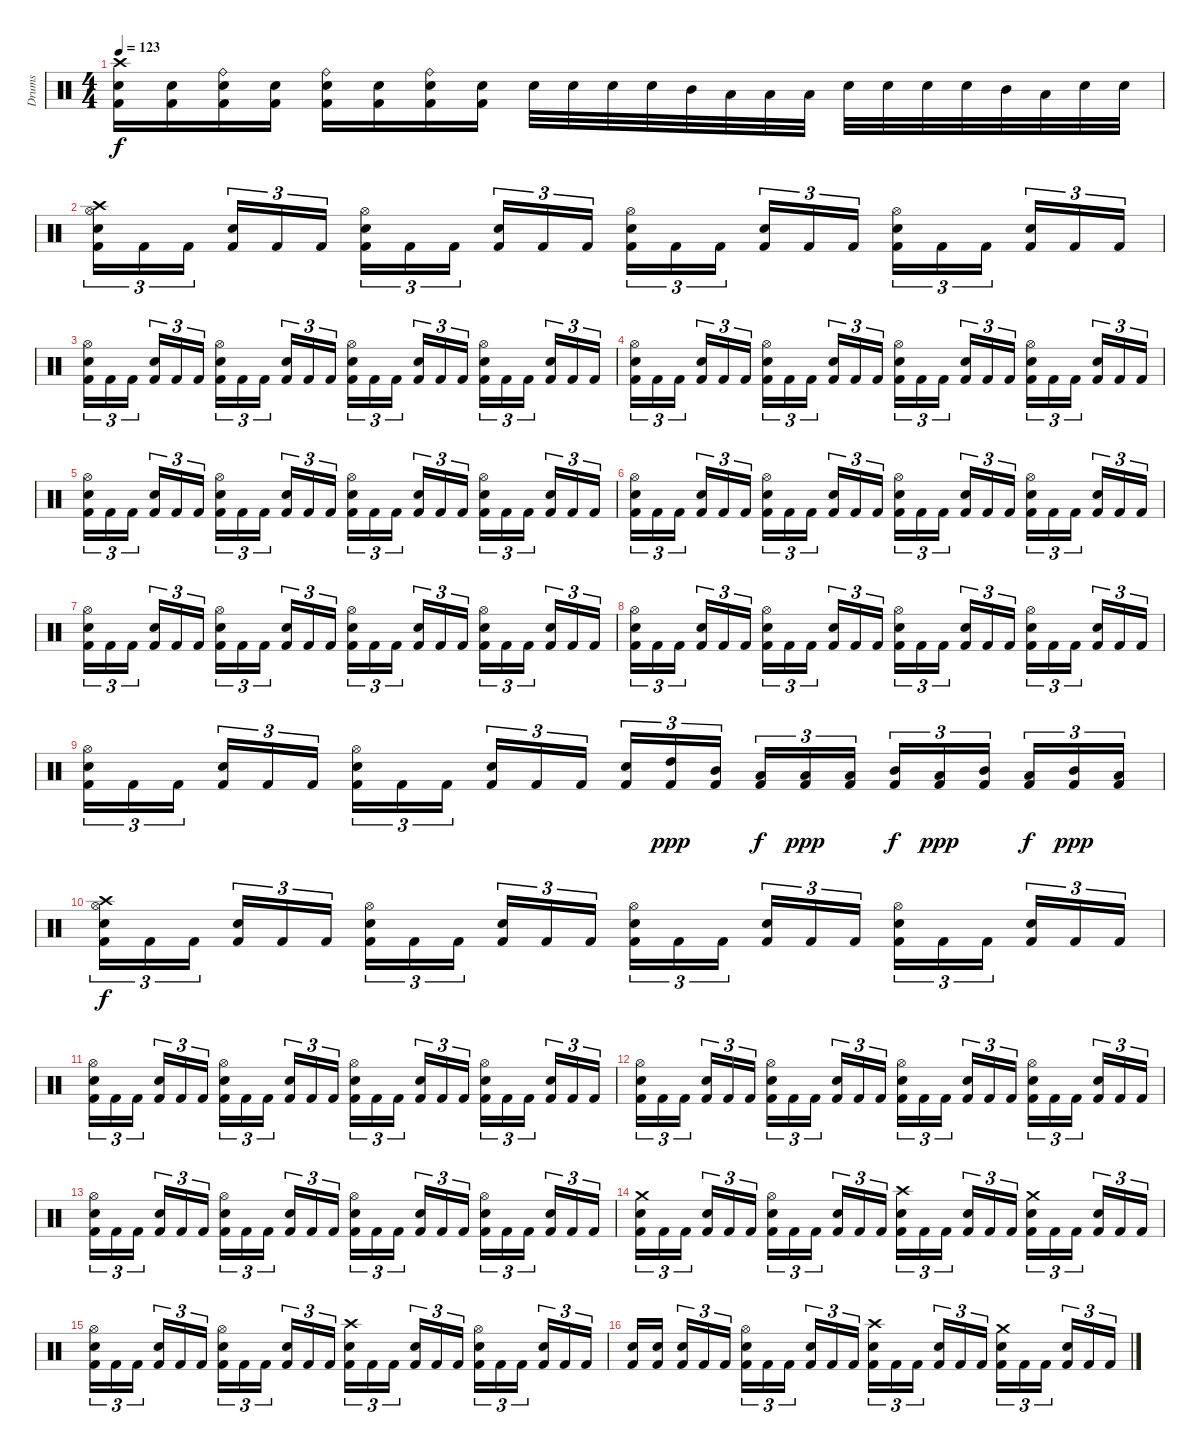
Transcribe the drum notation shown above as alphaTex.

\track ("Drums" "Drums") {instrument percussion}
\staff {score}
\articulation defaults
\ts (4 4)
\tempo 123
\clef neutral
\ks c
("Crash high (hit)" "Snare (hit) 2" "Kick (hit) 2").16{dy f} ("Snare (hit) 2" "Kick (hit) 2").16 ("Ride (bell)" "Snare (hit) 2" "Kick (hit) 2").16 ("Snare (hit) 2" "Kick (hit) 2").16 ("Ride (bell)" "Snare (hit) 2" "Kick (hit) 2").16 ("Snare (hit) 2" "Kick (hit) 2").16 ("Ride (bell)" "Snare (hit) 2" "Kick (hit) 2").16 ("Snare (hit) 2" "Kick (hit) 2").16 "Snare (hit) 2".32 "Snare (hit) 2".32 "Snare (hit) 2".32 "Snare (hit) 2".32 "Mid Tom (hit)".32 "Low Tom (hit)".32 "Low Floor Tom (hit)".32 "Low Tom (hit)".32 "Snare (hit) 2".32 "Snare (hit) 2".32 "Snare (hit) 2".32 "Snare (hit) 2".32 "Mid Tom (hit)".32 "Low Tom (hit)".32 "Snare (hit) 2".32 "Snare (hit) 2".32 |
("Crash high (hit)" "Hi-Hat (open)" "Snare (hit) 2" "Kick (hit) 2").16{tu (3 2)} "Kick (hit) 2".16{tu (3 2)} "Kick (hit) 2".16{tu (3 2) beam splitsecondary} ("Snare (hit) 2" "Kick (hit) 2").16{tu (3 2)} "Kick (hit) 2".16{tu (3 2)} "Kick (hit) 2".16{tu (3 2)} ("Hi-Hat (open)" "Snare (hit) 2" "Kick (hit) 2").16{tu (3 2)} "Kick (hit) 2".16{tu (3 2)} "Kick (hit) 2".16{tu (3 2) beam splitsecondary} ("Snare (hit) 2" "Kick (hit) 2").16{tu (3 2)} "Kick (hit) 2".16{tu (3 2)} "Kick (hit) 2".16{tu (3 2)} ("Hi-Hat (open)" "Snare (hit) 2" "Kick (hit) 2").16{tu (3 2)} "Kick (hit) 2".16{tu (3 2)} "Kick (hit) 2".16{tu (3 2) beam splitsecondary} ("Snare (hit) 2" "Kick (hit) 2").16{tu (3 2)} "Kick (hit) 2".16{tu (3 2)} "Kick (hit) 2".16{tu (3 2)} ("Hi-Hat (open)" "Snare (hit) 2" "Kick (hit) 2").16{tu (3 2)} "Kick (hit) 2".16{tu (3 2)} "Kick (hit) 2".16{tu (3 2) beam splitsecondary} ("Snare (hit) 2" "Kick (hit) 2").16{tu (3 2)} "Kick (hit) 2".16{tu (3 2)} "Kick (hit) 2".16{tu (3 2)} |
("Hi-Hat (open)" "Snare (hit) 2" "Kick (hit) 2").16{tu (3 2)} "Kick (hit) 2".16{tu (3 2)} "Kick (hit) 2".16{tu (3 2) beam splitsecondary} ("Snare (hit) 2" "Kick (hit) 2").16{tu (3 2)} "Kick (hit) 2".16{tu (3 2)} "Kick (hit) 2".16{tu (3 2)} ("Hi-Hat (open)" "Snare (hit) 2" "Kick (hit) 2").16{tu (3 2)} "Kick (hit) 2".16{tu (3 2)} "Kick (hit) 2".16{tu (3 2) beam splitsecondary} ("Snare (hit) 2" "Kick (hit) 2").16{tu (3 2)} "Kick (hit) 2".16{tu (3 2)} "Kick (hit) 2".16{tu (3 2)} ("Hi-Hat (open)" "Snare (hit) 2" "Kick (hit) 2").16{tu (3 2)} "Kick (hit) 2".16{tu (3 2)} "Kick (hit) 2".16{tu (3 2) beam splitsecondary} ("Snare (hit) 2" "Kick (hit) 2").16{tu (3 2)} "Kick (hit) 2".16{tu (3 2)} "Kick (hit) 2".16{tu (3 2)} ("Hi-Hat (open)" "Snare (hit) 2" "Kick (hit) 2").16{tu (3 2)} "Kick (hit) 2".16{tu (3 2)} "Kick (hit) 2".16{tu (3 2) beam splitsecondary} ("Snare (hit) 2" "Kick (hit) 2").16{tu (3 2)} "Kick (hit) 2".16{tu (3 2)} "Kick (hit) 2".16{tu (3 2)} |
("Hi-Hat (open)" "Snare (hit) 2" "Kick (hit) 2").16{tu (3 2)} "Kick (hit) 2".16{tu (3 2)} "Kick (hit) 2".16{tu (3 2) beam splitsecondary} ("Snare (hit) 2" "Kick (hit) 2").16{tu (3 2)} "Kick (hit) 2".16{tu (3 2)} "Kick (hit) 2".16{tu (3 2)} ("Hi-Hat (open)" "Snare (hit) 2" "Kick (hit) 2").16{tu (3 2)} "Kick (hit) 2".16{tu (3 2)} "Kick (hit) 2".16{tu (3 2) beam splitsecondary} ("Snare (hit) 2" "Kick (hit) 2").16{tu (3 2)} "Kick (hit) 2".16{tu (3 2)} "Kick (hit) 2".16{tu (3 2)} ("Hi-Hat (open)" "Snare (hit) 2" "Kick (hit) 2").16{tu (3 2)} "Kick (hit) 2".16{tu (3 2)} "Kick (hit) 2".16{tu (3 2) beam splitsecondary} ("Snare (hit) 2" "Kick (hit) 2").16{tu (3 2)} "Kick (hit) 2".16{tu (3 2)} "Kick (hit) 2".16{tu (3 2)} ("Hi-Hat (open)" "Snare (hit) 2" "Kick (hit) 2").16{tu (3 2)} "Kick (hit) 2".16{tu (3 2)} "Kick (hit) 2".16{tu (3 2) beam splitsecondary} ("Snare (hit) 2" "Kick (hit) 2").16{tu (3 2)} "Kick (hit) 2".16{tu (3 2)} "Kick (hit) 2".16{tu (3 2)} |
("Hi-Hat (open)" "Snare (hit) 2" "Kick (hit) 2").16{tu (3 2)} "Kick (hit) 2".16{tu (3 2)} "Kick (hit) 2".16{tu (3 2) beam splitsecondary} ("Snare (hit) 2" "Kick (hit) 2").16{tu (3 2)} "Kick (hit) 2".16{tu (3 2)} "Kick (hit) 2".16{tu (3 2)} ("Hi-Hat (open)" "Snare (hit) 2" "Kick (hit) 2").16{tu (3 2)} "Kick (hit) 2".16{tu (3 2)} "Kick (hit) 2".16{tu (3 2) beam splitsecondary} ("Snare (hit) 2" "Kick (hit) 2").16{tu (3 2)} "Kick (hit) 2".16{tu (3 2)} "Kick (hit) 2".16{tu (3 2)} ("Hi-Hat (open)" "Snare (hit) 2" "Kick (hit) 2").16{tu (3 2)} "Kick (hit) 2".16{tu (3 2)} "Kick (hit) 2".16{tu (3 2) beam splitsecondary} ("Snare (hit) 2" "Kick (hit) 2").16{tu (3 2)} "Kick (hit) 2".16{tu (3 2)} "Kick (hit) 2".16{tu (3 2)} ("Hi-Hat (open)" "Snare (hit) 2" "Kick (hit) 2").16{tu (3 2)} "Kick (hit) 2".16{tu (3 2)} "Kick (hit) 2".16{tu (3 2) beam splitsecondary} ("Snare (hit) 2" "Kick (hit) 2").16{tu (3 2)} "Kick (hit) 2".16{tu (3 2)} "Kick (hit) 2".16{tu (3 2)} |
("Hi-Hat (open)" "Snare (hit) 2" "Kick (hit) 2").16{tu (3 2)} "Kick (hit) 2".16{tu (3 2)} "Kick (hit) 2".16{tu (3 2) beam splitsecondary} ("Snare (hit) 2" "Kick (hit) 2").16{tu (3 2)} "Kick (hit) 2".16{tu (3 2)} "Kick (hit) 2".16{tu (3 2)} ("Hi-Hat (open)" "Snare (hit) 2" "Kick (hit) 2").16{tu (3 2)} "Kick (hit) 2".16{tu (3 2)} "Kick (hit) 2".16{tu (3 2) beam splitsecondary} ("Snare (hit) 2" "Kick (hit) 2").16{tu (3 2)} "Kick (hit) 2".16{tu (3 2)} "Kick (hit) 2".16{tu (3 2)} ("Hi-Hat (open)" "Snare (hit) 2" "Kick (hit) 2").16{tu (3 2)} "Kick (hit) 2".16{tu (3 2)} "Kick (hit) 2".16{tu (3 2) beam splitsecondary} ("Snare (hit) 2" "Kick (hit) 2").16{tu (3 2)} "Kick (hit) 2".16{tu (3 2)} "Kick (hit) 2".16{tu (3 2)} ("Hi-Hat (open)" "Snare (hit) 2" "Kick (hit) 2").16{tu (3 2)} "Kick (hit) 2".16{tu (3 2)} "Kick (hit) 2".16{tu (3 2) beam splitsecondary} ("Snare (hit) 2" "Kick (hit) 2").16{tu (3 2)} "Kick (hit) 2".16{tu (3 2)} "Kick (hit) 2".16{tu (3 2)} |
("Hi-Hat (open)" "Snare (hit) 2" "Kick (hit) 2").16{tu (3 2)} "Kick (hit) 2".16{tu (3 2)} "Kick (hit) 2".16{tu (3 2) beam splitsecondary} ("Snare (hit) 2" "Kick (hit) 2").16{tu (3 2)} "Kick (hit) 2".16{tu (3 2)} "Kick (hit) 2".16{tu (3 2)} ("Hi-Hat (open)" "Snare (hit) 2" "Kick (hit) 2").16{tu (3 2)} "Kick (hit) 2".16{tu (3 2)} "Kick (hit) 2".16{tu (3 2) beam splitsecondary} ("Snare (hit) 2" "Kick (hit) 2").16{tu (3 2)} "Kick (hit) 2".16{tu (3 2)} "Kick (hit) 2".16{tu (3 2)} ("Hi-Hat (open)" "Snare (hit) 2" "Kick (hit) 2").16{tu (3 2)} "Kick (hit) 2".16{tu (3 2)} "Kick (hit) 2".16{tu (3 2) beam splitsecondary} ("Snare (hit) 2" "Kick (hit) 2").16{tu (3 2)} "Kick (hit) 2".16{tu (3 2)} "Kick (hit) 2".16{tu (3 2)} ("Hi-Hat (open)" "Snare (hit) 2" "Kick (hit) 2").16{tu (3 2)} "Kick (hit) 2".16{tu (3 2)} "Kick (hit) 2".16{tu (3 2) beam splitsecondary} ("Snare (hit) 2" "Kick (hit) 2").16{tu (3 2)} "Kick (hit) 2".16{tu (3 2)} "Kick (hit) 2".16{tu (3 2)} |
("Hi-Hat (open)" "Snare (hit) 2" "Kick (hit) 2").16{tu (3 2)} "Kick (hit) 2".16{tu (3 2)} "Kick (hit) 2".16{tu (3 2) beam splitsecondary} ("Snare (hit) 2" "Kick (hit) 2").16{tu (3 2)} "Kick (hit) 2".16{tu (3 2)} "Kick (hit) 2".16{tu (3 2)} ("Hi-Hat (open)" "Snare (hit) 2" "Kick (hit) 2").16{tu (3 2)} "Kick (hit) 2".16{tu (3 2)} "Kick (hit) 2".16{tu (3 2) beam splitsecondary} ("Snare (hit) 2" "Kick (hit) 2").16{tu (3 2)} "Kick (hit) 2".16{tu (3 2)} "Kick (hit) 2".16{tu (3 2)} ("Hi-Hat (open)" "Snare (hit) 2" "Kick (hit) 2").16{tu (3 2)} "Kick (hit) 2".16{tu (3 2)} "Kick (hit) 2".16{tu (3 2) beam splitsecondary} ("Snare (hit) 2" "Kick (hit) 2").16{tu (3 2)} "Kick (hit) 2".16{tu (3 2)} "Kick (hit) 2".16{tu (3 2)} ("Hi-Hat (open)" "Snare (hit) 2" "Kick (hit) 2").16{tu (3 2)} "Kick (hit) 2".16{tu (3 2)} "Kick (hit) 2".16{tu (3 2) beam splitsecondary} ("Snare (hit) 2" "Kick (hit) 2").16{tu (3 2)} "Kick (hit) 2".16{tu (3 2)} "Kick (hit) 2".16{tu (3 2)} |
("Hi-Hat (open)" "Snare (hit) 2" "Kick (hit) 2").16{tu (3 2)} "Kick (hit) 2".16{tu (3 2)} "Kick (hit) 2".16{tu (3 2) beam splitsecondary} ("Snare (hit) 2" "Kick (hit) 2").16{tu (3 2)} "Kick (hit) 2".16{tu (3 2)} "Kick (hit) 2".16{tu (3 2)} ("Hi-Hat (open)" "Snare (hit) 2" "Kick (hit) 2").16{tu (3 2)} "Kick (hit) 2".16{tu (3 2)} "Kick (hit) 2".16{tu (3 2) beam splitsecondary} ("Snare (hit) 2" "Kick (hit) 2").16{tu (3 2)} "Kick (hit) 2".16{tu (3 2)} "Kick (hit) 2".16{tu (3 2)} ("Snare (hit) 2" "Kick (hit) 2").16{tu (3 2)} ("High Tom (hit)" "Kick (hit) 2").16{tu (3 2) dy ppp} ("Mid Tom (hit)" "Kick (hit) 2").16{tu (3 2) beam splitsecondary} ("Low Tom (hit)" "Kick (hit) 2").16{tu (3 2) dy f} ("Low Floor Tom (hit)" "Kick (hit) 2").16{tu (3 2) dy ppp} ("Low Tom (hit)" "Kick (hit) 2").16{tu (3 2)} ("Mid Tom (hit)" "Kick (hit) 2").16{tu (3 2) dy f} ("Low Tom (hit)" "Kick (hit) 2").16{tu (3 2) dy ppp} ("Mid Tom (hit)" "Kick (hit) 2").16{tu (3 2) beam splitsecondary} ("Low Tom (hit)" "Kick (hit) 2").16{tu (3 2) dy f} ("Mid Tom (hit)" "Kick (hit) 2").16{tu (3 2) dy ppp} ("Low Tom (hit)" "Kick (hit) 2").16{tu (3 2)} |
("Crash high (hit)" "Hi-Hat (open)" "Snare (hit) 2" "Kick (hit) 2").16{tu (3 2) dy f} "Kick (hit) 2".16{tu (3 2)} "Kick (hit) 2".16{tu (3 2) beam splitsecondary} ("Snare (hit) 2" "Kick (hit) 2").16{tu (3 2)} "Kick (hit) 2".16{tu (3 2)} "Kick (hit) 2".16{tu (3 2)} ("Hi-Hat (open)" "Snare (hit) 2" "Kick (hit) 2").16{tu (3 2)} "Kick (hit) 2".16{tu (3 2)} "Kick (hit) 2".16{tu (3 2) beam splitsecondary} ("Snare (hit) 2" "Kick (hit) 2").16{tu (3 2)} "Kick (hit) 2".16{tu (3 2)} "Kick (hit) 2".16{tu (3 2)} ("Hi-Hat (open)" "Snare (hit) 2" "Kick (hit) 2").16{tu (3 2)} "Kick (hit) 2".16{tu (3 2)} "Kick (hit) 2".16{tu (3 2) beam splitsecondary} ("Snare (hit) 2" "Kick (hit) 2").16{tu (3 2)} "Kick (hit) 2".16{tu (3 2)} "Kick (hit) 2".16{tu (3 2)} ("Hi-Hat (open)" "Snare (hit) 2" "Kick (hit) 2").16{tu (3 2)} "Kick (hit) 2".16{tu (3 2)} "Kick (hit) 2".16{tu (3 2) beam splitsecondary} ("Snare (hit) 2" "Kick (hit) 2").16{tu (3 2)} "Kick (hit) 2".16{tu (3 2)} "Kick (hit) 2".16{tu (3 2)} |
("Hi-Hat (open)" "Snare (hit) 2" "Kick (hit) 2").16{tu (3 2)} "Kick (hit) 2".16{tu (3 2)} "Kick (hit) 2".16{tu (3 2) beam splitsecondary} ("Snare (hit) 2" "Kick (hit) 2").16{tu (3 2)} "Kick (hit) 2".16{tu (3 2)} "Kick (hit) 2".16{tu (3 2)} ("Hi-Hat (open)" "Snare (hit) 2" "Kick (hit) 2").16{tu (3 2)} "Kick (hit) 2".16{tu (3 2)} "Kick (hit) 2".16{tu (3 2) beam splitsecondary} ("Snare (hit) 2" "Kick (hit) 2").16{tu (3 2)} "Kick (hit) 2".16{tu (3 2)} "Kick (hit) 2".16{tu (3 2)} ("Hi-Hat (open)" "Snare (hit) 2" "Kick (hit) 2").16{tu (3 2)} "Kick (hit) 2".16{tu (3 2)} "Kick (hit) 2".16{tu (3 2) beam splitsecondary} ("Snare (hit) 2" "Kick (hit) 2").16{tu (3 2)} "Kick (hit) 2".16{tu (3 2)} "Kick (hit) 2".16{tu (3 2)} ("Hi-Hat (open)" "Snare (hit) 2" "Kick (hit) 2").16{tu (3 2)} "Kick (hit) 2".16{tu (3 2)} "Kick (hit) 2".16{tu (3 2) beam splitsecondary} ("Snare (hit) 2" "Kick (hit) 2").16{tu (3 2)} "Kick (hit) 2".16{tu (3 2)} "Kick (hit) 2".16{tu (3 2)} |
("Hi-Hat (open)" "Snare (hit) 2" "Kick (hit) 2").16{tu (3 2)} "Kick (hit) 2".16{tu (3 2)} "Kick (hit) 2".16{tu (3 2) beam splitsecondary} ("Snare (hit) 2" "Kick (hit) 2").16{tu (3 2)} "Kick (hit) 2".16{tu (3 2)} "Kick (hit) 2".16{tu (3 2)} ("Hi-Hat (open)" "Snare (hit) 2" "Kick (hit) 2").16{tu (3 2)} "Kick (hit) 2".16{tu (3 2)} "Kick (hit) 2".16{tu (3 2) beam splitsecondary} ("Snare (hit) 2" "Kick (hit) 2").16{tu (3 2)} "Kick (hit) 2".16{tu (3 2)} "Kick (hit) 2".16{tu (3 2)} ("Hi-Hat (open)" "Snare (hit) 2" "Kick (hit) 2").16{tu (3 2)} "Kick (hit) 2".16{tu (3 2)} "Kick (hit) 2".16{tu (3 2) beam splitsecondary} ("Snare (hit) 2" "Kick (hit) 2").16{tu (3 2)} "Kick (hit) 2".16{tu (3 2)} "Kick (hit) 2".16{tu (3 2)} ("Hi-Hat (open)" "Snare (hit) 2" "Kick (hit) 2").16{tu (3 2)} "Kick (hit) 2".16{tu (3 2)} "Kick (hit) 2".16{tu (3 2) beam splitsecondary} ("Snare (hit) 2" "Kick (hit) 2").16{tu (3 2)} "Kick (hit) 2".16{tu (3 2)} "Kick (hit) 2".16{tu (3 2)} |
("Hi-Hat (open)" "Snare (hit) 2" "Kick (hit) 2").16{tu (3 2)} "Kick (hit) 2".16{tu (3 2)} "Kick (hit) 2".16{tu (3 2) beam splitsecondary} ("Snare (hit) 2" "Kick (hit) 2").16{tu (3 2)} "Kick (hit) 2".16{tu (3 2)} "Kick (hit) 2".16{tu (3 2)} ("Hi-Hat (open)" "Snare (hit) 2" "Kick (hit) 2").16{tu (3 2)} "Kick (hit) 2".16{tu (3 2)} "Kick (hit) 2".16{tu (3 2) beam splitsecondary} ("Snare (hit) 2" "Kick (hit) 2").16{tu (3 2)} "Kick (hit) 2".16{tu (3 2)} "Kick (hit) 2".16{tu (3 2)} ("Hi-Hat (open)" "Snare (hit) 2" "Kick (hit) 2").16{tu (3 2)} "Kick (hit) 2".16{tu (3 2)} "Kick (hit) 2".16{tu (3 2) beam splitsecondary} ("Snare (hit) 2" "Kick (hit) 2").16{tu (3 2)} "Kick (hit) 2".16{tu (3 2)} "Kick (hit) 2".16{tu (3 2)} ("Hi-Hat (open)" "Snare (hit) 2" "Kick (hit) 2").16{tu (3 2)} "Kick (hit) 2".16{tu (3 2)} "Kick (hit) 2".16{tu (3 2) beam splitsecondary} ("Snare (hit) 2" "Kick (hit) 2").16{tu (3 2)} "Kick (hit) 2".16{tu (3 2)} "Kick (hit) 2".16{tu (3 2)} |
("Crash medium (hit)" "Snare (hit) 2" "Kick (hit) 2").16{tu (3 2)} "Kick (hit) 2".16{tu (3 2)} "Kick (hit) 2".16{tu (3 2) beam splitsecondary} ("Snare (hit) 2" "Kick (hit) 2").16{tu (3 2)} "Kick (hit) 2".16{tu (3 2)} "Kick (hit) 2".16{tu (3 2)} ("Hi-Hat (open)" "Snare (hit) 2" "Kick (hit) 2").16{tu (3 2)} "Kick (hit) 2".16{tu (3 2)} "Kick (hit) 2".16{tu (3 2) beam splitsecondary} ("Snare (hit) 2" "Kick (hit) 2").16{tu (3 2)} "Kick (hit) 2".16{tu (3 2)} "Kick (hit) 2".16{tu (3 2)} ("Crash high (hit)" "Snare (hit) 2" "Kick (hit) 2").16{tu (3 2)} "Kick (hit) 2".16{tu (3 2)} "Kick (hit) 2".16{tu (3 2) beam splitsecondary} ("Snare (hit) 2" "Kick (hit) 2").16{tu (3 2)} "Kick (hit) 2".16{tu (3 2)} "Kick (hit) 2".16{tu (3 2)} ("Crash medium (hit)" "Snare (hit) 2" "Kick (hit) 2").16{tu (3 2)} "Kick (hit) 2".16{tu (3 2)} "Kick (hit) 2".16{tu (3 2) beam splitsecondary} ("Snare (hit) 2" "Kick (hit) 2").16{tu (3 2)} "Kick (hit) 2".16{tu (3 2)} "Kick (hit) 2".16{tu (3 2)} |
("Hi-Hat (open)" "Snare (hit) 2" "Kick (hit) 2").16{tu (3 2)} "Kick (hit) 2".16{tu (3 2)} "Kick (hit) 2".16{tu (3 2) beam splitsecondary} ("Snare (hit) 2" "Kick (hit) 2").16{tu (3 2)} "Kick (hit) 2".16{tu (3 2)} "Kick (hit) 2".16{tu (3 2)} ("Hi-Hat (open)" "Snare (hit) 2" "Kick (hit) 2").16{tu (3 2)} "Kick (hit) 2".16{tu (3 2)} "Kick (hit) 2".16{tu (3 2) beam splitsecondary} ("Snare (hit) 2" "Kick (hit) 2").16{tu (3 2)} "Kick (hit) 2".16{tu (3 2)} "Kick (hit) 2".16{tu (3 2)} ("Crash high (hit)" "Snare (hit) 2" "Kick (hit) 2").16{tu (3 2)} "Kick (hit) 2".16{tu (3 2)} "Kick (hit) 2".16{tu (3 2) beam splitsecondary} ("Snare (hit) 2" "Kick (hit) 2").16{tu (3 2)} "Kick (hit) 2".16{tu (3 2)} "Kick (hit) 2".16{tu (3 2)} ("Hi-Hat (open)" "Snare (hit) 2" "Kick (hit) 2").16{tu (3 2)} "Kick (hit) 2".16{tu (3 2)} "Kick (hit) 2".16{tu (3 2) beam splitsecondary} ("Snare (hit) 2" "Kick (hit) 2").16{tu (3 2)} "Kick (hit) 2".16{tu (3 2)} "Kick (hit) 2".16{tu (3 2)} |
("Snare (hit) 2" "Kick (hit) 2").16 ("Snare (hit) 2" "Kick (hit) 2").16{beam splitsecondary} ("Snare (hit) 2" "Kick (hit) 2").16{tu (3 2)} "Kick (hit) 2".16{tu (3 2)} "Kick (hit) 2".16{tu (3 2)} ("Hi-Hat (open)" "Snare (hit) 2" "Kick (hit) 2").16{tu (3 2)} "Kick (hit) 2".16{tu (3 2)} "Kick (hit) 2".16{tu (3 2) beam splitsecondary} ("Snare (hit) 2" "Kick (hit) 2").16{tu (3 2)} "Kick (hit) 2".16{tu (3 2)} "Kick (hit) 2".16{tu (3 2)} ("Crash high (hit)" "Snare (hit) 2" "Kick (hit) 2").16{tu (3 2)} "Kick (hit) 2".16{tu (3 2)} "Kick (hit) 2".16{tu (3 2) beam splitsecondary} ("Snare (hit) 2" "Kick (hit) 2").16{tu (3 2)} "Kick (hit) 2".16{tu (3 2)} "Kick (hit) 2".16{tu (3 2)} ("Crash medium (hit)" "Snare (hit) 2" "Kick (hit) 2").16{tu (3 2)} "Kick (hit) 2".16{tu (3 2)} "Kick (hit) 2".16{tu (3 2) beam splitsecondary} ("Snare (hit) 2" "Kick (hit) 2").16{tu (3 2)} "Kick (hit) 2".16{tu (3 2)} "Kick (hit) 2".16{tu (3 2)}
